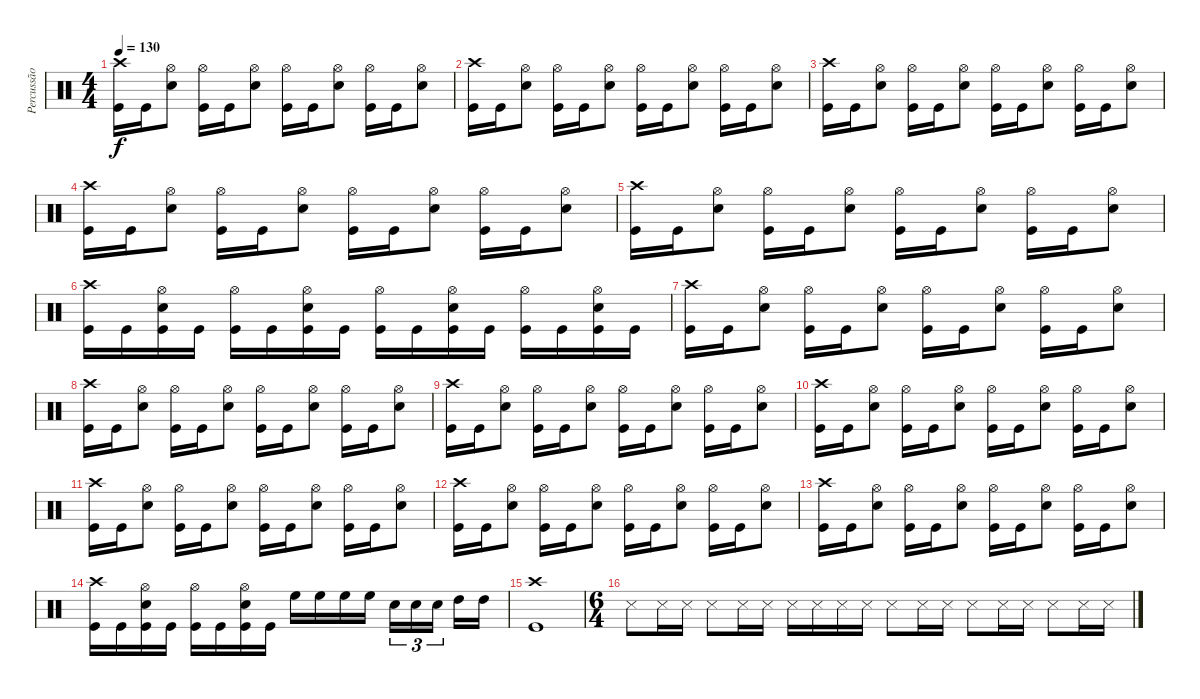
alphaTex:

\track ("Percussão" "Percussão") {instrument percussion}
\staff {score}
\articulation defaults
\ts (4 4)
\tempo 130
\clef neutral
\ks c
("Crash high (hit)" "Kick (hit)").16{dy f} "Kick (hit)".16 ("Hi-Hat (open)" "Snare (hit) 2").8 ("Hi-Hat (open)" "Kick (hit)").16 "Kick (hit)".16 ("Hi-Hat (open)" "Snare (hit) 2").8 ("Hi-Hat (open)" "Kick (hit)").16 "Kick (hit)".16 ("Hi-Hat (open)" "Snare (hit) 2").8 ("Hi-Hat (open)" "Kick (hit)").16 "Kick (hit)".16 ("Hi-Hat (open)" "Snare (hit) 2").8 |
("Crash high (hit)" "Kick (hit)").16 "Kick (hit)".16 ("Hi-Hat (open)" "Snare (hit) 2").8 ("Hi-Hat (open)" "Kick (hit)").16 "Kick (hit)".16 ("Hi-Hat (open)" "Snare (hit) 2").8 ("Hi-Hat (open)" "Kick (hit)").16 "Kick (hit)".16 ("Hi-Hat (open)" "Snare (hit) 2").8 ("Hi-Hat (open)" "Kick (hit)").16 "Kick (hit)".16 ("Hi-Hat (open)" "Snare (hit) 2").8 |
("Crash high (hit)" "Kick (hit)").16 "Kick (hit)".16 ("Hi-Hat (open)" "Snare (hit) 2").8 ("Hi-Hat (open)" "Kick (hit)").16 "Kick (hit)".16 ("Hi-Hat (open)" "Snare (hit) 2").8 ("Hi-Hat (open)" "Kick (hit)").16 "Kick (hit)".16 ("Hi-Hat (open)" "Snare (hit) 2").8 ("Hi-Hat (open)" "Kick (hit)").16 "Kick (hit)".16 ("Hi-Hat (open)" "Snare (hit) 2").8 |
("Crash high (hit)" "Kick (hit)").16 "Kick (hit)".16 ("Hi-Hat (open)" "Snare (hit) 2").8 ("Hi-Hat (open)" "Kick (hit)").16 "Kick (hit)".16 ("Hi-Hat (open)" "Snare (hit) 2").8 ("Hi-Hat (open)" "Kick (hit)").16 "Kick (hit)".16 ("Hi-Hat (open)" "Snare (hit) 2").8 ("Hi-Hat (open)" "Kick (hit)").16 "Kick (hit)".16 ("Hi-Hat (open)" "Snare (hit) 2").8 |
("Crash high (hit)" "Kick (hit)").16 "Kick (hit)".16 ("Hi-Hat (open)" "Snare (hit) 2").8 ("Hi-Hat (open)" "Kick (hit)").16 "Kick (hit)".16 ("Hi-Hat (open)" "Snare (hit) 2").8 ("Hi-Hat (open)" "Kick (hit)").16 "Kick (hit)".16 ("Hi-Hat (open)" "Snare (hit) 2").8 ("Hi-Hat (open)" "Kick (hit)").16 "Kick (hit)".16 ("Hi-Hat (open)" "Snare (hit) 2").8 |
("Crash high (hit)" "Kick (hit)").16 "Kick (hit)".16 ("Hi-Hat (open)" "Snare (hit) 2" "Kick (hit)").16 "Kick (hit)".16 ("Hi-Hat (open)" "Kick (hit)").16 "Kick (hit)".16 ("Hi-Hat (open)" "Snare (hit) 2" "Kick (hit)").16 "Kick (hit)".16 ("Hi-Hat (open)" "Kick (hit)").16 "Kick (hit)".16 ("Hi-Hat (open)" "Snare (hit) 2" "Kick (hit)").16 "Kick (hit)".16 ("Hi-Hat (open)" "Kick (hit)").16 "Kick (hit)".16 ("Hi-Hat (open)" "Snare (hit) 2" "Kick (hit)").16 "Kick (hit)".16 |
("Crash high (hit)" "Kick (hit)").16 "Kick (hit)".16 ("Hi-Hat (open)" "Snare (hit) 2").8 ("Hi-Hat (open)" "Kick (hit)").16 "Kick (hit)".16 ("Hi-Hat (open)" "Snare (hit) 2").8 ("Hi-Hat (open)" "Kick (hit)").16 "Kick (hit)".16 ("Hi-Hat (open)" "Snare (hit) 2").8 ("Hi-Hat (open)" "Kick (hit)").16 "Kick (hit)".16 ("Hi-Hat (open)" "Snare (hit) 2").8 |
("Crash high (hit)" "Kick (hit)").16 "Kick (hit)".16 ("Hi-Hat (open)" "Snare (hit) 2").8 ("Hi-Hat (open)" "Kick (hit)").16 "Kick (hit)".16 ("Hi-Hat (open)" "Snare (hit) 2").8 ("Hi-Hat (open)" "Kick (hit)").16 "Kick (hit)".16 ("Hi-Hat (open)" "Snare (hit) 2").8 ("Hi-Hat (open)" "Kick (hit)").16 "Kick (hit)".16 ("Hi-Hat (open)" "Snare (hit) 2").8 |
("Crash high (hit)" "Kick (hit)").16 "Kick (hit)".16 ("Hi-Hat (open)" "Snare (hit) 2").8 ("Hi-Hat (open)" "Kick (hit)").16 "Kick (hit)".16 ("Hi-Hat (open)" "Snare (hit) 2").8 ("Hi-Hat (open)" "Kick (hit)").16 "Kick (hit)".16 ("Hi-Hat (open)" "Snare (hit) 2").8 ("Hi-Hat (open)" "Kick (hit)").16 "Kick (hit)".16 ("Hi-Hat (open)" "Snare (hit) 2").8 |
("Crash high (hit)" "Kick (hit)").16 "Kick (hit)".16 ("Hi-Hat (open)" "Snare (hit) 2").8 ("Hi-Hat (open)" "Kick (hit)").16 "Kick (hit)".16 ("Hi-Hat (open)" "Snare (hit) 2").8 ("Hi-Hat (open)" "Kick (hit)").16 "Kick (hit)".16 ("Hi-Hat (open)" "Snare (hit) 2").8 ("Hi-Hat (open)" "Kick (hit)").16 "Kick (hit)".16 ("Hi-Hat (open)" "Snare (hit) 2").8 |
("Crash high (hit)" "Kick (hit)").16 "Kick (hit)".16 ("Hi-Hat (open)" "Snare (hit) 2").8 ("Hi-Hat (open)" "Kick (hit)").16 "Kick (hit)".16 ("Hi-Hat (open)" "Snare (hit) 2").8 ("Hi-Hat (open)" "Kick (hit)").16 "Kick (hit)".16 ("Hi-Hat (open)" "Snare (hit) 2").8 ("Hi-Hat (open)" "Kick (hit)").16 "Kick (hit)".16 ("Hi-Hat (open)" "Snare (hit) 2").8 |
("Crash high (hit)" "Kick (hit)").16 "Kick (hit)".16 ("Hi-Hat (open)" "Snare (hit) 2").8 ("Hi-Hat (open)" "Kick (hit)").16 "Kick (hit)".16 ("Hi-Hat (open)" "Snare (hit) 2").8 ("Hi-Hat (open)" "Kick (hit)").16 "Kick (hit)".16 ("Hi-Hat (open)" "Snare (hit) 2").8 ("Hi-Hat (open)" "Kick (hit)").16 "Kick (hit)".16 ("Hi-Hat (open)" "Snare (hit) 2").8 |
("Crash high (hit)" "Kick (hit)").16 "Kick (hit)".16 ("Hi-Hat (open)" "Snare (hit) 2").8 ("Hi-Hat (open)" "Kick (hit)").16 "Kick (hit)".16 ("Hi-Hat (open)" "Snare (hit) 2").8 ("Hi-Hat (open)" "Kick (hit)").16 "Kick (hit)".16 ("Hi-Hat (open)" "Snare (hit) 2").8 ("Hi-Hat (open)" "Kick (hit)").16 "Kick (hit)".16 ("Hi-Hat (open)" "Snare (hit) 2").8 |
("Crash high (hit)" "Kick (hit)").16 "Kick (hit)".16 ("Hi-Hat (open)" "Snare (hit) 2" "Kick (hit)").16 "Kick (hit)".16 ("Hi-Hat (open)" "Kick (hit)").16 "Kick (hit)".16 ("Hi-Hat (open)" "Snare (hit) 2" "Kick (hit)").16 "Kick (hit)".16 "High Floor Tom (hit)".16 "High Floor Tom (hit)".16 "High Floor Tom (hit)".16 "High Floor Tom (hit)".16 "Snare (hit) 2".16{tu (3 2)} "Snare (hit) 2".16{tu (3 2)} "Snare (hit) 2".16{tu (3 2)} "High Tom (hit)".16 "High Tom (hit)".16 |
("Crash high (hit)" "Kick (hit)").1 |
\ts (6 4)
"Snare (side stick) 3".8 "Snare (side stick) 3".16 "Snare (side stick) 3".16 "Snare (side stick) 3".8 "Snare (side stick) 3".16 "Snare (side stick) 3".16 "Snare (side stick) 3".16 "Snare (side stick) 3".16 "Snare (side stick) 3".16 "Snare (side stick) 3".16 "Snare (side stick) 3".8 "Snare (side stick) 3".16 "Snare (side stick) 3".16 "Snare (side stick) 3".8 "Snare (side stick) 3".16 "Snare (side stick) 3".16 "Snare (side stick) 3".8 "Snare (side stick) 3".16 "Snare (side stick) 3".16
